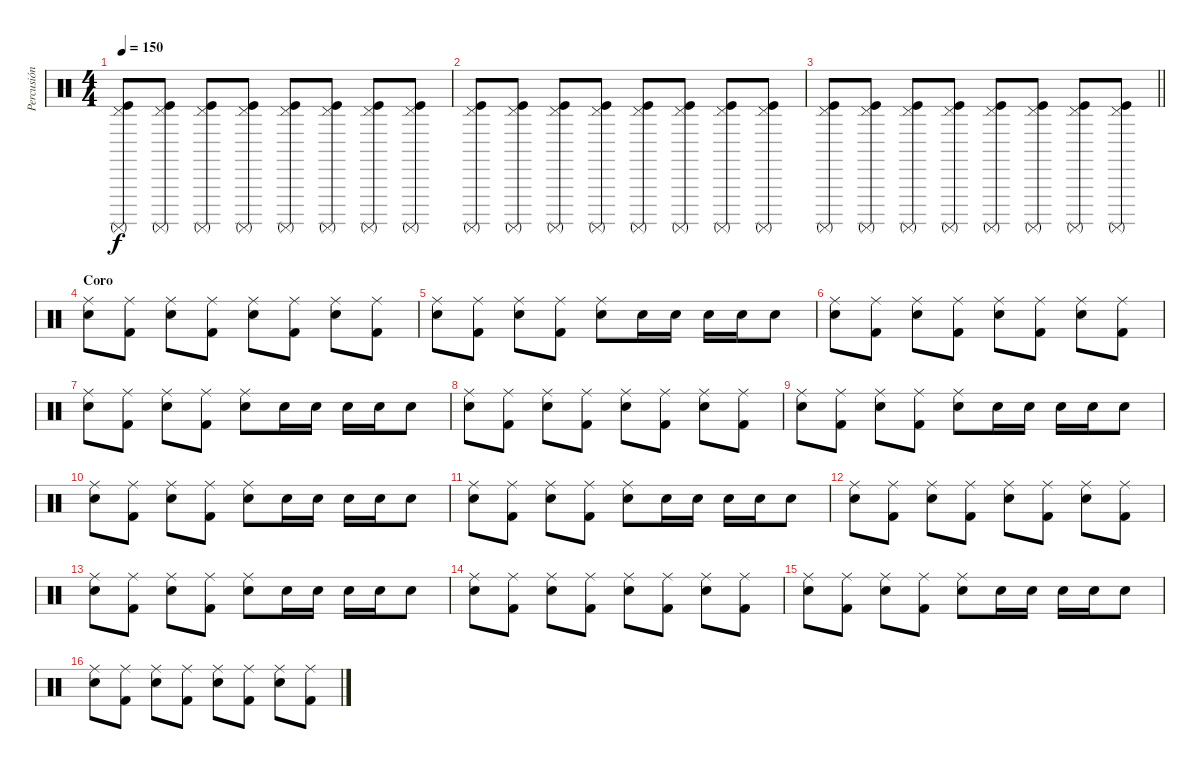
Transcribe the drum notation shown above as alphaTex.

\track ("Percusión" "Percusión") {instrument percussion}
\staff {score}
\articulation defaults
\ts (4 4)
\tempo 150
\clef neutral
\ks c
("Surdo (mute)" "Kick (hit)" "Pedal Hi-Hat (hit)").8{dy f} ("Surdo (mute)" "Kick (hit)" "Pedal Hi-Hat (hit)").8 ("Surdo (mute)" "Kick (hit)" "Pedal Hi-Hat (hit)").8 ("Surdo (mute)" "Kick (hit)" "Pedal Hi-Hat (hit)").8 ("Surdo (mute)" "Kick (hit)" "Pedal Hi-Hat (hit)").8 ("Surdo (mute)" "Kick (hit)" "Pedal Hi-Hat (hit)").8 ("Surdo (mute)" "Kick (hit)" "Pedal Hi-Hat (hit)").8 ("Surdo (mute)" "Kick (hit)" "Pedal Hi-Hat (hit)").8 |
("Surdo (mute)" "Kick (hit)" "Pedal Hi-Hat (hit)").8 ("Surdo (mute)" "Kick (hit)" "Pedal Hi-Hat (hit)").8 ("Surdo (mute)" "Kick (hit)" "Pedal Hi-Hat (hit)").8 ("Surdo (mute)" "Kick (hit)" "Pedal Hi-Hat (hit)").8 ("Surdo (mute)" "Kick (hit)" "Pedal Hi-Hat (hit)").8 ("Surdo (mute)" "Kick (hit)" "Pedal Hi-Hat (hit)").8 ("Surdo (mute)" "Kick (hit)" "Pedal Hi-Hat (hit)").8 ("Surdo (mute)" "Kick (hit)" "Pedal Hi-Hat (hit)").8 |
\barLineRight lightlight
("Surdo (mute)" "Kick (hit)" "Pedal Hi-Hat (hit)").8 ("Surdo (mute)" "Kick (hit)" "Pedal Hi-Hat (hit)").8 ("Surdo (mute)" "Kick (hit)" "Pedal Hi-Hat (hit)").8 ("Surdo (mute)" "Kick (hit)" "Pedal Hi-Hat (hit)").8 ("Surdo (mute)" "Kick (hit)" "Pedal Hi-Hat (hit)").8 ("Surdo (mute)" "Kick (hit)" "Pedal Hi-Hat (hit)").8 ("Surdo (mute)" "Kick (hit)" "Pedal Hi-Hat (hit)").8 ("Surdo (mute)" "Kick (hit)" "Pedal Hi-Hat (hit)").8 |
\section ("" "Coro")
("Ride (middle)" "Snare (hit) 2").8 ("Ride (middle)" "Kick (hit) 2").8 ("Ride (middle)" "Snare (hit) 2").8 ("Ride (middle)" "Kick (hit) 2").8 ("Ride (middle)" "Snare (hit) 2").8 ("Ride (middle)" "Kick (hit) 2").8 ("Ride (middle)" "Snare (hit) 2").8 ("Ride (middle)" "Kick (hit) 2").8 |
("Ride (middle)" "Snare (hit) 2").8 ("Ride (middle)" "Kick (hit) 2").8 ("Ride (middle)" "Snare (hit) 2").8 ("Ride (middle)" "Kick (hit) 2").8 ("Ride (middle)" "Snare (hit) 2").8 "Snare (hit) 2".16 "Snare (hit) 2".16 "Snare (hit) 2".16 "Snare (hit) 2".16 "Snare (hit) 2".8 |
("Ride (middle)" "Snare (hit) 2").8 ("Ride (middle)" "Kick (hit) 2").8 ("Ride (middle)" "Snare (hit) 2").8 ("Ride (middle)" "Kick (hit) 2").8 ("Ride (middle)" "Snare (hit) 2").8 ("Ride (middle)" "Kick (hit) 2").8 ("Ride (middle)" "Snare (hit) 2").8 ("Ride (middle)" "Kick (hit) 2").8 |
("Ride (middle)" "Snare (hit) 2").8 ("Ride (middle)" "Kick (hit) 2").8 ("Ride (middle)" "Snare (hit) 2").8 ("Ride (middle)" "Kick (hit) 2").8 ("Ride (middle)" "Snare (hit) 2").8 "Snare (hit) 2".16 "Snare (hit) 2".16 "Snare (hit) 2".16 "Snare (hit) 2".16 "Snare (hit) 2".8 |
("Ride (middle)" "Snare (hit) 2").8 ("Ride (middle)" "Kick (hit) 2").8 ("Ride (middle)" "Snare (hit) 2").8 ("Ride (middle)" "Kick (hit) 2").8 ("Ride (middle)" "Snare (hit) 2").8 ("Ride (middle)" "Kick (hit) 2").8 ("Ride (middle)" "Snare (hit) 2").8 ("Ride (middle)" "Kick (hit) 2").8 |
("Ride (middle)" "Snare (hit) 2").8 ("Ride (middle)" "Kick (hit) 2").8 ("Ride (middle)" "Snare (hit) 2").8 ("Ride (middle)" "Kick (hit) 2").8 ("Ride (middle)" "Snare (hit) 2").8 "Snare (hit) 2".16 "Snare (hit) 2".16 "Snare (hit) 2".16 "Snare (hit) 2".16 "Snare (hit) 2".8 |
("Ride (middle)" "Snare (hit) 2").8 ("Ride (middle)" "Kick (hit) 2").8 ("Ride (middle)" "Snare (hit) 2").8 ("Ride (middle)" "Kick (hit) 2").8 ("Ride (middle)" "Snare (hit) 2").8 "Snare (hit) 2".16 "Snare (hit) 2".16 "Snare (hit) 2".16 "Snare (hit) 2".16 "Snare (hit) 2".8 |
("Ride (middle)" "Snare (hit) 2").8 ("Ride (middle)" "Kick (hit) 2").8 ("Ride (middle)" "Snare (hit) 2").8 ("Ride (middle)" "Kick (hit) 2").8 ("Ride (middle)" "Snare (hit) 2").8 "Snare (hit) 2".16 "Snare (hit) 2".16 "Snare (hit) 2".16 "Snare (hit) 2".16 "Snare (hit) 2".8 |
("Ride (middle)" "Snare (hit) 2").8 ("Ride (middle)" "Kick (hit) 2").8 ("Ride (middle)" "Snare (hit) 2").8 ("Ride (middle)" "Kick (hit) 2").8 ("Ride (middle)" "Snare (hit) 2").8 ("Ride (middle)" "Kick (hit) 2").8 ("Ride (middle)" "Snare (hit) 2").8 ("Ride (middle)" "Kick (hit) 2").8 |
("Ride (middle)" "Snare (hit) 2").8 ("Ride (middle)" "Kick (hit) 2").8 ("Ride (middle)" "Snare (hit) 2").8 ("Ride (middle)" "Kick (hit) 2").8 ("Ride (middle)" "Snare (hit) 2").8 "Snare (hit) 2".16 "Snare (hit) 2".16 "Snare (hit) 2".16 "Snare (hit) 2".16 "Snare (hit) 2".8 |
("Ride (middle)" "Snare (hit) 2").8 ("Ride (middle)" "Kick (hit) 2").8 ("Ride (middle)" "Snare (hit) 2").8 ("Ride (middle)" "Kick (hit) 2").8 ("Ride (middle)" "Snare (hit) 2").8 ("Ride (middle)" "Kick (hit) 2").8 ("Ride (middle)" "Snare (hit) 2").8 ("Ride (middle)" "Kick (hit) 2").8 |
("Ride (middle)" "Snare (hit) 2").8 ("Ride (middle)" "Kick (hit) 2").8 ("Ride (middle)" "Snare (hit) 2").8 ("Ride (middle)" "Kick (hit) 2").8 ("Ride (middle)" "Snare (hit) 2").8 "Snare (hit) 2".16 "Snare (hit) 2".16 "Snare (hit) 2".16 "Snare (hit) 2".16 "Snare (hit) 2".8 |
("Ride (middle)" "Snare (hit) 2").8 ("Ride (middle)" "Kick (hit) 2").8 ("Ride (middle)" "Snare (hit) 2").8 ("Ride (middle)" "Kick (hit) 2").8 ("Ride (middle)" "Snare (hit) 2").8 ("Ride (middle)" "Kick (hit) 2").8 ("Ride (middle)" "Snare (hit) 2").8 ("Ride (middle)" "Kick (hit) 2").8
